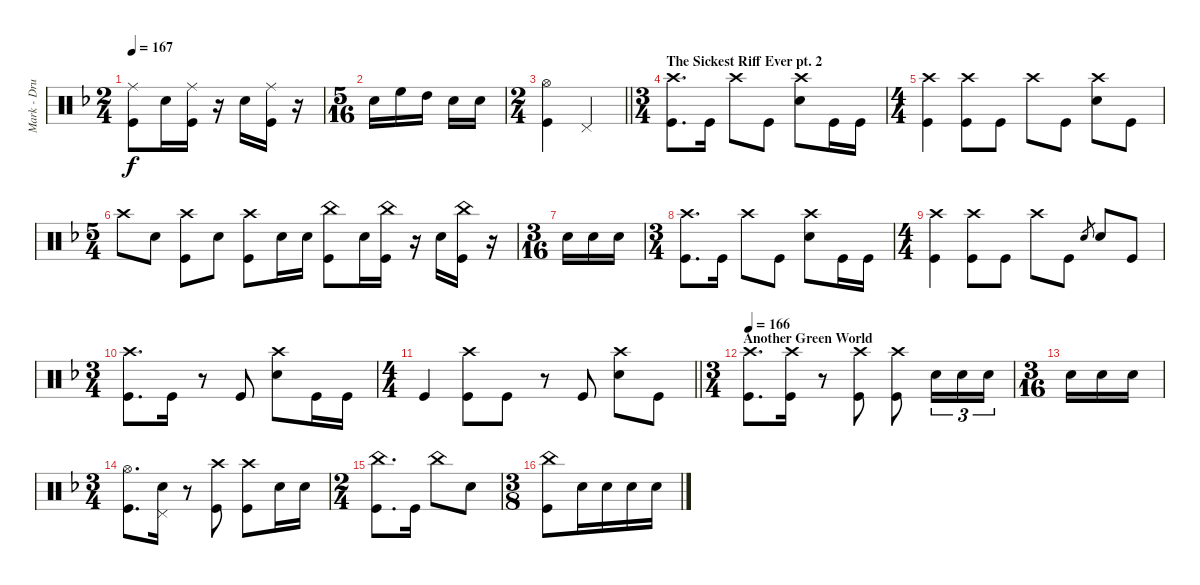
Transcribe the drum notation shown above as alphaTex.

\track ("Mark - Drums" "Mark - Dru") {instrument percussion}
\staff {score}
\articulation defaults
\ts (2 4)
\tempo 167
\clef neutral
\ks dminor
("Kick (hit)" "Ride (middle)").8{dy f} "Snare (hit) 2".16 ("Kick (hit)" "Ride (middle)").16 r.16 "Snare (hit) 2".16 ("Kick (hit)" "Ride (middle)").16 r.16 |
\ts (5 16)
"Snare (hit) 2".16 "High Floor Tom (hit)".16 "High Tom (hit)".16 "Snare (hit) 2".16 "Snare (hit) 2".16 |
\ts (2 4)
\barLineRight lightlight
("Kick (hit)" "Hi-Hat (open)").4 "Pedal Hi-Hat (hit)".4 |
\ts (3 4)
\section ("" "The Sickest Riff Ever pt. 2")
("Crash high (hit)" "Kick (hit)").8{d} "Kick (hit)".16 "Crash high (hit)".8 "Kick (hit)".8 ("Snare (hit) 2" "Crash high (hit)").8 "Kick (hit)".16 "Kick (hit)".16 |
\ts (4 4)
("Kick (hit)" "Crash high (hit)").4 ("Crash high (hit)" "Kick (hit)").8 "Kick (hit)".8 "Crash high (hit)".8 "Kick (hit)".8 ("Crash high (hit)" "Snare (hit) 2").8 "Kick (hit)".8 |
\ts (5 4)
"Crash high (hit)".8 "Snare (hit) 2".8 ("Kick (hit)" "Crash high (hit)").8 "Snare (hit) 2".8 ("Kick (hit)" "Crash high (hit)").8 "Snare (hit) 2".16 "Snare (hit) 2".16 ("Kick (hit)" "China (hit)").8 "Snare (hit) 2".16 ("Kick (hit)" "China (hit)").16 r.16 "Snare (hit) 2".16 ("Kick (hit)" "China (hit)").16 r.16 |
\ts (3 16)
"Snare (hit) 2".16 "Snare (hit) 2".16 "Snare (hit) 2".16 |
\ts (3 4)
("Crash high (hit)" "Kick (hit)").8{d} "Kick (hit)".16 "Crash high (hit)".8 "Kick (hit)".8 ("Snare (hit) 2" "Crash high (hit)").8 "Kick (hit)".16 "Kick (hit)".16 |
\ts (4 4)
("Kick (hit)" "Crash high (hit)").4 ("Crash high (hit)" "Kick (hit)").8 "Kick (hit)".8 "Crash high (hit)".8 "Kick (hit)".8 "Snare (hit) 2".8{gr} "Snare (hit) 2".8 "Kick (hit)".8 |
\ts (3 4)
("Crash high (hit)" "Kick (hit)").8{d} "Kick (hit)".16 r.8 "Kick (hit)".8 ("Snare (hit) 2" "Crash high (hit)").8 "Kick (hit)".16 "Kick (hit)".16 |
\ts (4 4)
\barLineRight lightlight "Kick (hit)".4
("Crash high (hit)" "Kick (hit)").8 "Kick (hit)".8 r.8 "Kick (hit)".8 ("Snare (hit) 2" "Crash high (hit)").8 "Kick (hit)".8 |
\ts (3 4)
\section ("" "Another Green World")
\tempo 166
("Crash high (hit)" "Kick (hit)").8{d} ("Kick (hit)" "Crash high (hit)").16 r.8 ("Kick (hit)" "Crash high (hit)").8 ("Kick (hit)" "Crash high (hit)").8 "Snare (hit) 2".16{tu (3 2)} "Snare (hit) 2".16{tu (3 2)} "Snare (hit) 2".16{tu (3 2)} |
\ts (3 16)
"Snare (hit) 2".16 "Snare (hit) 2".16 "Snare (hit) 2".16 |
\ts (3 4)
("Kick (hit)" "Hi-Hat (open)").8{d} ("Snare (hit) 2" "Pedal Hi-Hat (hit)").16 r.8 ("Kick (hit)" "Crash high (hit)").8 ("Kick (hit)" "Crash high (hit)").8 "Snare (hit) 2".16 "Snare (hit) 2".16 |
\ts (2 4)
("China (hit)" "Kick (hit)").8{d} "Kick (hit)".16 "China (hit)".8 "Snare (hit) 2".8 |
\ts (3 8)
("China (hit)" "Kick (hit)").8 "Snare (hit) 2".16 "Snare (hit) 2".16 "Snare (hit) 2".16 "Snare (hit) 2".16
